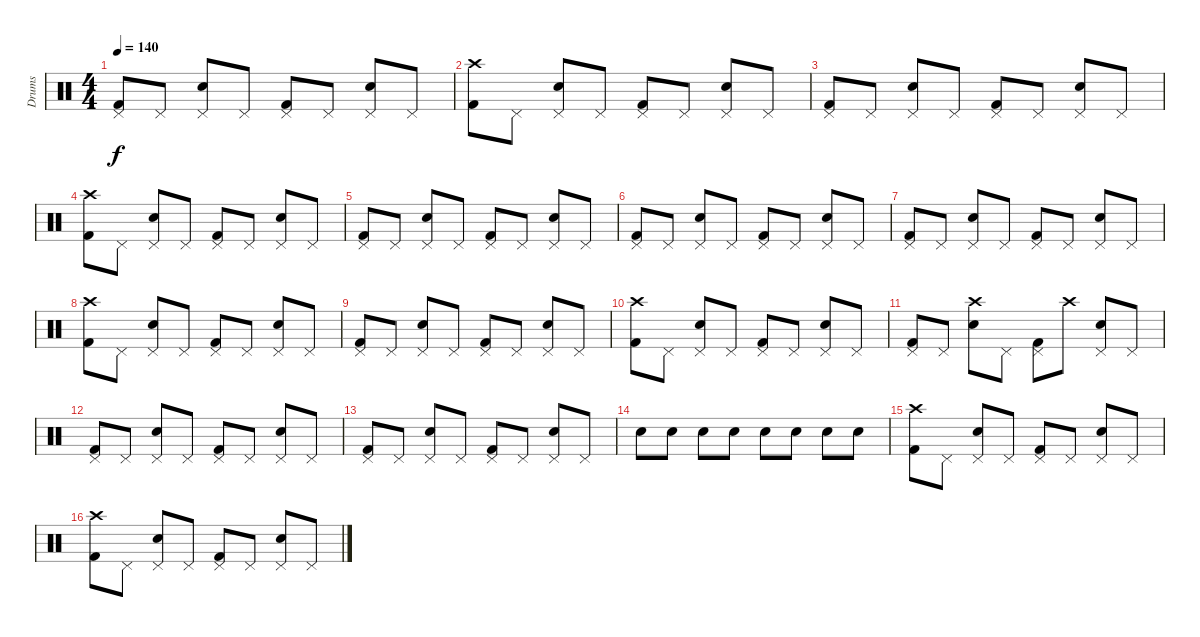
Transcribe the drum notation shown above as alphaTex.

\track ("Drums" "Drums") {instrument percussion}
\staff {score}
\articulation defaults
\ts (4 4)
\tempo 140
\clef neutral
\ks c
("Pedal Hi-Hat (hit)" "Kick (hit) 2").8{dy f} "Pedal Hi-Hat (hit)".8 ("Pedal Hi-Hat (hit)" "Snare (hit) 2").8 "Pedal Hi-Hat (hit)".8 ("Pedal Hi-Hat (hit)" "Kick (hit) 2").8 "Pedal Hi-Hat (hit)".8 ("Pedal Hi-Hat (hit)" "Snare (hit) 2").8 "Pedal Hi-Hat (hit)".8 |
("Crash high (hit)" "Kick (hit) 2").8 "Pedal Hi-Hat (hit)".8 ("Pedal Hi-Hat (hit)" "Snare (hit) 2").8 "Pedal Hi-Hat (hit)".8 ("Pedal Hi-Hat (hit)" "Kick (hit) 2").8 "Pedal Hi-Hat (hit)".8 ("Pedal Hi-Hat (hit)" "Snare (hit) 2").8 "Pedal Hi-Hat (hit)".8 |
("Pedal Hi-Hat (hit)" "Kick (hit) 2").8 "Pedal Hi-Hat (hit)".8 ("Pedal Hi-Hat (hit)" "Snare (hit) 2").8 "Pedal Hi-Hat (hit)".8 ("Pedal Hi-Hat (hit)" "Kick (hit) 2").8 "Pedal Hi-Hat (hit)".8 ("Pedal Hi-Hat (hit)" "Snare (hit) 2").8 "Pedal Hi-Hat (hit)".8 |
("Crash high (hit)" "Kick (hit) 2").8 "Pedal Hi-Hat (hit)".8 ("Pedal Hi-Hat (hit)" "Snare (hit) 2").8 "Pedal Hi-Hat (hit)".8 ("Pedal Hi-Hat (hit)" "Kick (hit) 2").8 "Pedal Hi-Hat (hit)".8 ("Pedal Hi-Hat (hit)" "Snare (hit) 2").8 "Pedal Hi-Hat (hit)".8 |
("Pedal Hi-Hat (hit)" "Kick (hit) 2").8 "Pedal Hi-Hat (hit)".8 ("Pedal Hi-Hat (hit)" "Snare (hit) 2").8 "Pedal Hi-Hat (hit)".8 ("Pedal Hi-Hat (hit)" "Kick (hit) 2").8 "Pedal Hi-Hat (hit)".8 ("Pedal Hi-Hat (hit)" "Snare (hit) 2").8 "Pedal Hi-Hat (hit)".8 |
("Pedal Hi-Hat (hit)" "Kick (hit) 2").8 "Pedal Hi-Hat (hit)".8 ("Pedal Hi-Hat (hit)" "Snare (hit) 2").8 "Pedal Hi-Hat (hit)".8 ("Pedal Hi-Hat (hit)" "Kick (hit) 2").8 "Pedal Hi-Hat (hit)".8 ("Pedal Hi-Hat (hit)" "Snare (hit) 2").8 "Pedal Hi-Hat (hit)".8 |
("Pedal Hi-Hat (hit)" "Kick (hit) 2").8 "Pedal Hi-Hat (hit)".8 ("Pedal Hi-Hat (hit)" "Snare (hit) 2").8 "Pedal Hi-Hat (hit)".8 ("Pedal Hi-Hat (hit)" "Kick (hit) 2").8 "Pedal Hi-Hat (hit)".8 ("Pedal Hi-Hat (hit)" "Snare (hit) 2").8 "Pedal Hi-Hat (hit)".8 |
("Crash high (hit)" "Kick (hit) 2").8 "Pedal Hi-Hat (hit)".8 ("Pedal Hi-Hat (hit)" "Snare (hit) 2").8 "Pedal Hi-Hat (hit)".8 ("Pedal Hi-Hat (hit)" "Kick (hit) 2").8 "Pedal Hi-Hat (hit)".8 ("Pedal Hi-Hat (hit)" "Snare (hit) 2").8 "Pedal Hi-Hat (hit)".8 |
("Pedal Hi-Hat (hit)" "Kick (hit) 2").8 "Pedal Hi-Hat (hit)".8 ("Pedal Hi-Hat (hit)" "Snare (hit) 2").8 "Pedal Hi-Hat (hit)".8 ("Pedal Hi-Hat (hit)" "Kick (hit) 2").8 "Pedal Hi-Hat (hit)".8 ("Pedal Hi-Hat (hit)" "Snare (hit) 2").8 "Pedal Hi-Hat (hit)".8 |
("Crash high (hit)" "Kick (hit) 2").8 "Pedal Hi-Hat (hit)".8 ("Pedal Hi-Hat (hit)" "Snare (hit) 2").8 "Pedal Hi-Hat (hit)".8 ("Pedal Hi-Hat (hit)" "Kick (hit) 2").8 "Pedal Hi-Hat (hit)".8 ("Pedal Hi-Hat (hit)" "Snare (hit) 2").8 "Pedal Hi-Hat (hit)".8 |
("Pedal Hi-Hat (hit)" "Kick (hit) 2").8 "Pedal Hi-Hat (hit)".8 ("Crash high (hit)" "Snare (hit) 2").8 "Pedal Hi-Hat (hit)".8 ("Pedal Hi-Hat (hit)" "Kick (hit) 2").8 "Crash high (hit)".8 ("Pedal Hi-Hat (hit)" "Snare (hit) 2").8 "Pedal Hi-Hat (hit)".8 |
("Pedal Hi-Hat (hit)" "Kick (hit) 2").8 "Pedal Hi-Hat (hit)".8 ("Pedal Hi-Hat (hit)" "Snare (hit) 2").8 "Pedal Hi-Hat (hit)".8 ("Pedal Hi-Hat (hit)" "Kick (hit) 2").8 "Pedal Hi-Hat (hit)".8 ("Pedal Hi-Hat (hit)" "Snare (hit) 2").8 "Pedal Hi-Hat (hit)".8 |
("Pedal Hi-Hat (hit)" "Kick (hit) 2").8 "Pedal Hi-Hat (hit)".8 ("Pedal Hi-Hat (hit)" "Snare (hit) 2").8 "Pedal Hi-Hat (hit)".8 ("Pedal Hi-Hat (hit)" "Kick (hit) 2").8 "Pedal Hi-Hat (hit)".8 ("Pedal Hi-Hat (hit)" "Snare (hit) 2").8 "Pedal Hi-Hat (hit)".8 |
"Snare (hit) 2".8 "Snare (hit) 2".8 "Snare (hit) 2".8 "Snare (hit) 2".8 "Snare (hit) 2".8 "Snare (hit) 2".8 "Snare (hit) 2".8 "Snare (hit) 2".8 |
("Crash high (hit)" "Kick (hit) 2").8 "Pedal Hi-Hat (hit)".8 ("Pedal Hi-Hat (hit)" "Snare (hit) 2").8 "Pedal Hi-Hat (hit)".8 ("Pedal Hi-Hat (hit)" "Kick (hit) 2").8 "Pedal Hi-Hat (hit)".8 ("Pedal Hi-Hat (hit)" "Snare (hit) 2").8 "Pedal Hi-Hat (hit)".8 |
("Crash high (hit)" "Kick (hit) 2").8 "Pedal Hi-Hat (hit)".8 ("Pedal Hi-Hat (hit)" "Snare (hit) 2").8 "Pedal Hi-Hat (hit)".8 ("Pedal Hi-Hat (hit)" "Kick (hit) 2").8 "Pedal Hi-Hat (hit)".8 ("Pedal Hi-Hat (hit)" "Snare (hit) 2").8 "Pedal Hi-Hat (hit)".8
